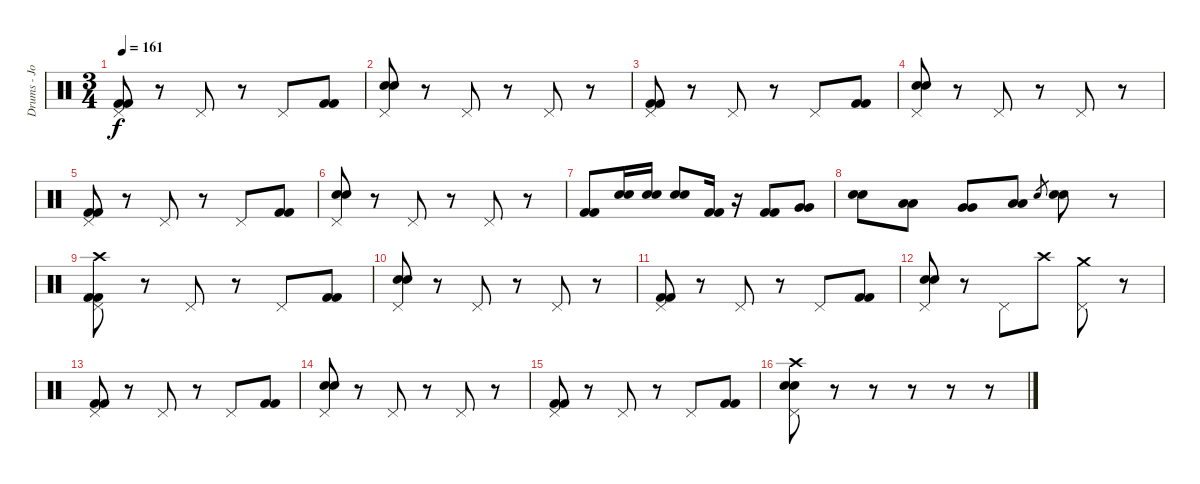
\track ("Drums - Jon Wilkes" "Drums - Jo") {instrument percussion}
\staff {score}
\articulation defaults
\ts (3 4)
\tempo 161
\clef neutral
\ks c
("Pedal Hi-Hat (hit)" "Kick (hit) 2" "Kick (hit) 2").8{dy f} r.8 "Pedal Hi-Hat (hit)".8 r.8 "Pedal Hi-Hat (hit)".8 ("Kick (hit) 2" "Kick (hit) 2").8 |
("Pedal Hi-Hat (hit)" "Electric Snare (hit)" "Electric Snare (hit)").8 r.8 "Pedal Hi-Hat (hit)".8 r.8 "Pedal Hi-Hat (hit)".8 r.8 |
("Pedal Hi-Hat (hit)" "Kick (hit) 2" "Kick (hit) 2").8 r.8 "Pedal Hi-Hat (hit)".8 r.8 "Pedal Hi-Hat (hit)".8 ("Kick (hit) 2" "Kick (hit) 2").8 |
("Pedal Hi-Hat (hit)" "Electric Snare (hit)" "Electric Snare (hit)").8 r.8 "Pedal Hi-Hat (hit)".8 r.8 "Pedal Hi-Hat (hit)".8 r.8 |
("Pedal Hi-Hat (hit)" "Kick (hit) 2" "Kick (hit) 2").8 r.8 "Pedal Hi-Hat (hit)".8 r.8 "Pedal Hi-Hat (hit)".8 ("Kick (hit) 2" "Kick (hit) 2").8 |
("Pedal Hi-Hat (hit)" "Electric Snare (hit)" "Electric Snare (hit)").8 r.8 "Pedal Hi-Hat (hit)".8 r.8 "Pedal Hi-Hat (hit)".8 r.8 |
("Kick (hit) 2" "Kick (hit) 2").8 ("Electric Snare (hit)" "Electric Snare (hit)").16 ("Electric Snare (hit)" "Electric Snare (hit)").16 ("Electric Snare (hit)" "Electric Snare (hit)").8 ("Kick (hit) 2" "Kick (hit) 2").16 r.16 ("Kick (hit) 2" "Kick (hit) 2").8 ("Very Low Tom (hit)" "Very Low Tom (hit)").8 |
("Electric Snare (hit)" "Electric Snare (hit)").8 ("Low Tom (hit)" "Low Tom (hit)").8 ("Very Low Tom (hit)" "Very Low Tom (hit)").8 ("Low Floor Tom (hit)" "Low Floor Tom (hit)").8 "Electric Snare (hit)".8{gr} ("Electric Snare (hit)" "Electric Snare (hit)").8 r.8 |
("Crash high (hit)" "Pedal Hi-Hat (hit)" "Kick (hit) 2" "Kick (hit) 2").8 r.8 "Pedal Hi-Hat (hit)".8 r.8 "Pedal Hi-Hat (hit)".8 ("Kick (hit) 2" "Kick (hit) 2").8 |
("Pedal Hi-Hat (hit)" "Electric Snare (hit)" "Electric Snare (hit)").8 r.8 "Pedal Hi-Hat (hit)".8 r.8 "Pedal Hi-Hat (hit)".8 r.8 |
("Pedal Hi-Hat (hit)" "Kick (hit) 2" "Kick (hit) 2").8 r.8 "Pedal Hi-Hat (hit)".8 r.8 "Pedal Hi-Hat (hit)".8 ("Kick (hit) 2" "Kick (hit) 2").8 |
("Pedal Hi-Hat (hit)" "Electric Snare (hit)" "Electric Snare (hit)").8 r.8 "Pedal Hi-Hat (hit)".8 "Crash high (hit)".8 ("Crash medium (hit)" "Pedal Hi-Hat (hit)").8 r.8 |
("Pedal Hi-Hat (hit)" "Kick (hit) 2" "Kick (hit) 2").8 r.8 "Pedal Hi-Hat (hit)".8 r.8 "Pedal Hi-Hat (hit)".8 ("Kick (hit) 2" "Kick (hit) 2").8 |
("Pedal Hi-Hat (hit)" "Electric Snare (hit)" "Electric Snare (hit)").8 r.8 "Pedal Hi-Hat (hit)".8 r.8 "Pedal Hi-Hat (hit)".8 r.8 |
("Pedal Hi-Hat (hit)" "Kick (hit) 2" "Kick (hit) 2").8 r.8 "Pedal Hi-Hat (hit)".8 r.8 "Pedal Hi-Hat (hit)".8 ("Kick (hit) 2" "Kick (hit) 2").8 |
("Crash high (hit)" "Pedal Hi-Hat (hit)" "Electric Snare (hit)" "Electric Snare (hit)").8 r.8 r.8 r.8 r.8 r.8
